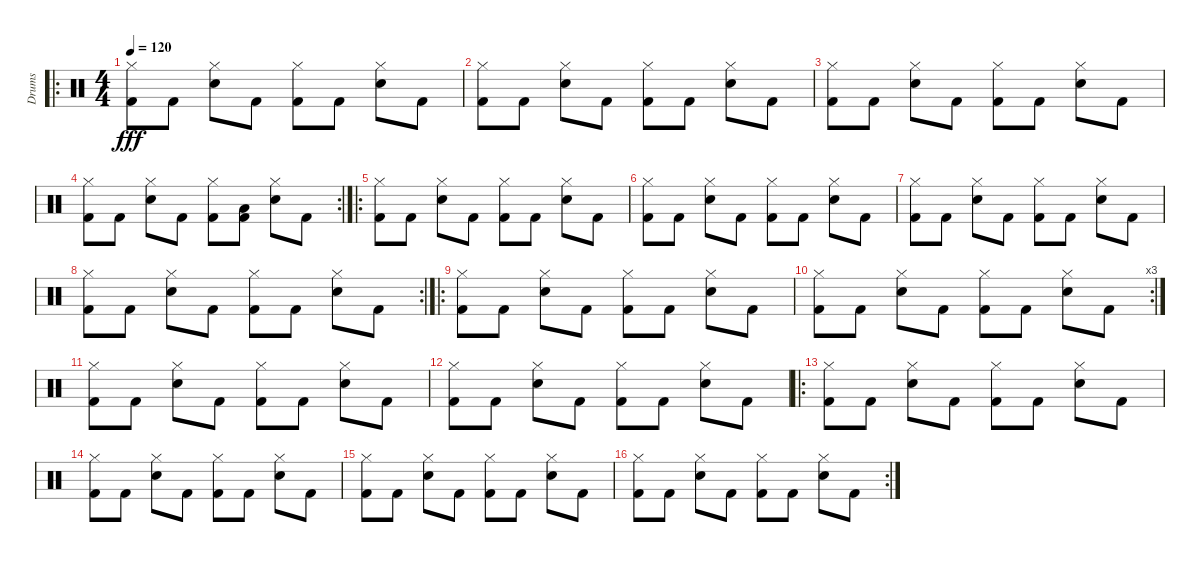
\track ("Drums" "Drums") {instrument percussion}
\staff {score}
\articulation defaults
\ro
\ts (4 4)
\tempo 120
\clef neutral
\ks c
("Kick (hit) 2" "Hi-Hat (closed)").8{dy fff} "Kick (hit) 2".8 ("Hi-Hat (closed)" "Snare (hit) 2").8 "Kick (hit) 2".8 ("Kick (hit) 2" "Hi-Hat (closed)").8 "Kick (hit) 2".8 ("Hi-Hat (closed)" "Snare (hit) 2").8 "Kick (hit) 2".8 |
("Kick (hit) 2" "Hi-Hat (closed)").8 "Kick (hit) 2".8 ("Hi-Hat (closed)" "Snare (hit) 2").8 "Kick (hit) 2".8 ("Kick (hit) 2" "Hi-Hat (closed)").8 "Kick (hit) 2".8 ("Hi-Hat (closed)" "Snare (hit) 2").8 "Kick (hit) 2".8 |
("Kick (hit) 2" "Hi-Hat (closed)").8 "Kick (hit) 2".8 ("Hi-Hat (closed)" "Snare (hit) 2").8 "Kick (hit) 2".8 ("Kick (hit) 2" "Hi-Hat (closed)").8 "Kick (hit) 2".8 ("Hi-Hat (closed)" "Snare (hit) 2").8 "Kick (hit) 2".8 |
\rc 2
("Kick (hit) 2" "Hi-Hat (closed)").8 "Kick (hit) 2".8 ("Hi-Hat (closed)" "Snare (hit) 2").8 "Kick (hit) 2".8 ("Kick (hit) 2" "Hi-Hat (closed)").8 ("Kick (hit) 2" "Low Floor Tom (hit)").8 ("Hi-Hat (closed)" "Snare (hit) 2").8 "Kick (hit) 2".8 |
\ro
("Kick (hit) 2" "Hi-Hat (closed)").8 "Kick (hit) 2".8 ("Hi-Hat (closed)" "Snare (hit) 2").8 "Kick (hit) 2".8 ("Kick (hit) 2" "Hi-Hat (closed)").8 "Kick (hit) 2".8 ("Hi-Hat (closed)" "Snare (hit) 2").8 "Kick (hit) 2".8 |
("Kick (hit) 2" "Hi-Hat (closed)").8 "Kick (hit) 2".8 ("Hi-Hat (closed)" "Snare (hit) 2").8 "Kick (hit) 2".8 ("Kick (hit) 2" "Hi-Hat (closed)").8 "Kick (hit) 2".8 ("Hi-Hat (closed)" "Snare (hit) 2").8 "Kick (hit) 2".8 |
("Kick (hit) 2" "Hi-Hat (closed)").8 "Kick (hit) 2".8 ("Hi-Hat (closed)" "Snare (hit) 2").8 "Kick (hit) 2".8 ("Kick (hit) 2" "Hi-Hat (closed)").8 "Kick (hit) 2".8 ("Hi-Hat (closed)" "Snare (hit) 2").8 "Kick (hit) 2".8 |
\rc 2
("Kick (hit) 2" "Hi-Hat (closed)").8 "Kick (hit) 2".8 ("Hi-Hat (closed)" "Snare (hit) 2").8 "Kick (hit) 2".8 ("Kick (hit) 2" "Hi-Hat (closed)").8 "Kick (hit) 2".8 ("Hi-Hat (closed)" "Snare (hit) 2").8 "Kick (hit) 2".8 |
\ro
("Kick (hit) 2" "Hi-Hat (closed)").8 "Kick (hit) 2".8 ("Hi-Hat (closed)" "Snare (hit) 2").8 "Kick (hit) 2".8 ("Kick (hit) 2" "Hi-Hat (closed)").8 "Kick (hit) 2".8 ("Hi-Hat (closed)" "Snare (hit) 2").8 "Kick (hit) 2".8 |
\rc 3
("Kick (hit) 2" "Hi-Hat (closed)").8 "Kick (hit) 2".8 ("Hi-Hat (closed)" "Snare (hit) 2").8 "Kick (hit) 2".8 ("Kick (hit) 2" "Hi-Hat (closed)").8 "Kick (hit) 2".8 ("Hi-Hat (closed)" "Snare (hit) 2").8 "Kick (hit) 2".8 |
("Kick (hit) 2" "Hi-Hat (closed)").8 "Kick (hit) 2".8 ("Hi-Hat (closed)" "Snare (hit) 2").8 "Kick (hit) 2".8 ("Kick (hit) 2" "Hi-Hat (closed)").8 "Kick (hit) 2".8 ("Hi-Hat (closed)" "Snare (hit) 2").8 "Kick (hit) 2".8 |
("Kick (hit) 2" "Hi-Hat (closed)").8 "Kick (hit) 2".8 ("Hi-Hat (closed)" "Snare (hit) 2").8 "Kick (hit) 2".8 ("Kick (hit) 2" "Hi-Hat (closed)").8 "Kick (hit) 2".8 ("Hi-Hat (closed)" "Snare (hit) 2").8 "Kick (hit) 2".8 |
\ro
("Kick (hit) 2" "Hi-Hat (closed)").8 "Kick (hit) 2".8 ("Hi-Hat (closed)" "Snare (hit) 2").8 "Kick (hit) 2".8 ("Kick (hit) 2" "Hi-Hat (closed)").8 "Kick (hit) 2".8 ("Hi-Hat (closed)" "Snare (hit) 2").8 "Kick (hit) 2".8 |
("Kick (hit) 2" "Hi-Hat (closed)").8 "Kick (hit) 2".8 ("Hi-Hat (closed)" "Snare (hit) 2").8 "Kick (hit) 2".8 ("Kick (hit) 2" "Hi-Hat (closed)").8 "Kick (hit) 2".8 ("Hi-Hat (closed)" "Snare (hit) 2").8 "Kick (hit) 2".8 |
("Kick (hit) 2" "Hi-Hat (closed)").8 "Kick (hit) 2".8 ("Hi-Hat (closed)" "Snare (hit) 2").8 "Kick (hit) 2".8 ("Kick (hit) 2" "Hi-Hat (closed)").8 "Kick (hit) 2".8 ("Hi-Hat (closed)" "Snare (hit) 2").8 "Kick (hit) 2".8 |
\rc 2
("Kick (hit) 2" "Hi-Hat (closed)").8 "Kick (hit) 2".8 ("Hi-Hat (closed)" "Snare (hit) 2").8 "Kick (hit) 2".8 ("Kick (hit) 2" "Hi-Hat (closed)").8 "Kick (hit) 2".8 ("Hi-Hat (closed)" "Snare (hit) 2").8 "Kick (hit) 2".8
